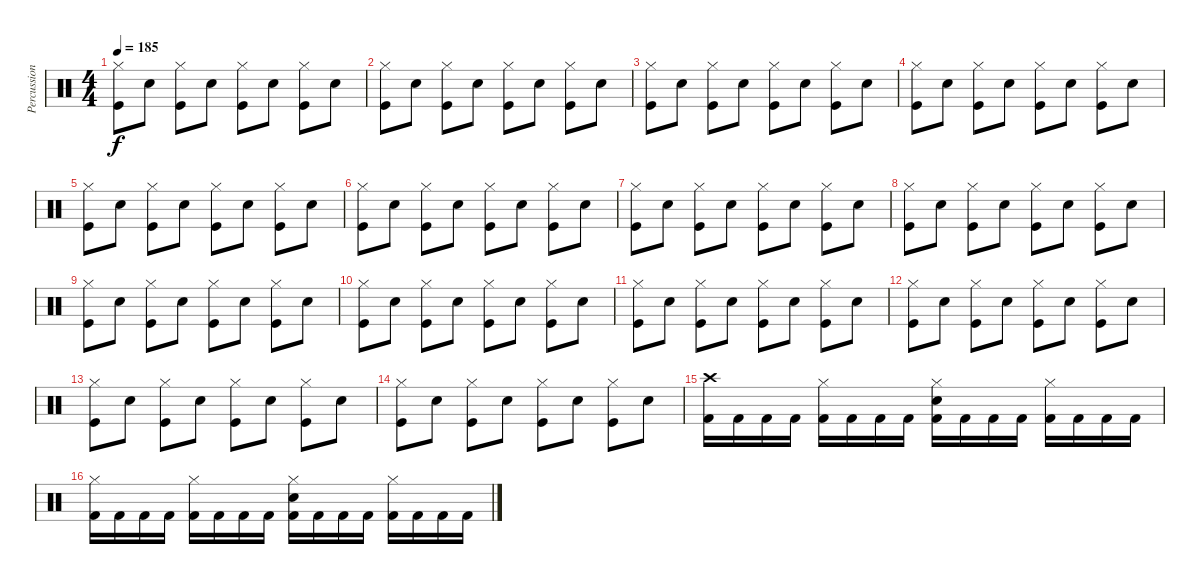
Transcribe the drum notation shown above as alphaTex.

\track ("Percussion" "Percussion") {instrument percussion}
\staff {score}
\articulation defaults
\ts (4 4)
\tempo 185
\clef neutral
\ks c
("Hi-Hat (closed)" "Kick (hit)").8{dy f} "Snare (hit) 2".8 ("Hi-Hat (closed)" "Kick (hit)").8 "Snare (hit) 2".8 ("Hi-Hat (closed)" "Kick (hit)").8 "Snare (hit) 2".8 ("Hi-Hat (closed)" "Kick (hit)").8 "Snare (hit) 2".8 |
("Hi-Hat (closed)" "Kick (hit)").8 "Snare (hit) 2".8 ("Hi-Hat (closed)" "Kick (hit)").8 "Snare (hit) 2".8 ("Hi-Hat (closed)" "Kick (hit)").8 "Snare (hit) 2".8 ("Hi-Hat (closed)" "Kick (hit)").8 "Snare (hit) 2".8 |
("Hi-Hat (closed)" "Kick (hit)").8 "Snare (hit) 2".8 ("Hi-Hat (closed)" "Kick (hit)").8 "Snare (hit) 2".8 ("Hi-Hat (closed)" "Kick (hit)").8 "Snare (hit) 2".8 ("Hi-Hat (closed)" "Kick (hit)").8 "Snare (hit) 2".8 |
("Hi-Hat (closed)" "Kick (hit)").8 "Snare (hit) 2".8 ("Hi-Hat (closed)" "Kick (hit)").8 "Snare (hit) 2".8 ("Hi-Hat (closed)" "Kick (hit)").8 "Snare (hit) 2".8 ("Hi-Hat (closed)" "Kick (hit)").8 "Snare (hit) 2".8 |
("Hi-Hat (closed)" "Kick (hit)").8 "Snare (hit) 2".8 ("Hi-Hat (closed)" "Kick (hit)").8 "Snare (hit) 2".8 ("Hi-Hat (closed)" "Kick (hit)").8 "Snare (hit) 2".8 ("Hi-Hat (closed)" "Kick (hit)").8 "Snare (hit) 2".8 |
("Hi-Hat (closed)" "Kick (hit)").8 "Snare (hit) 2".8 ("Hi-Hat (closed)" "Kick (hit)").8 "Snare (hit) 2".8 ("Hi-Hat (closed)" "Kick (hit)").8 "Snare (hit) 2".8 ("Hi-Hat (closed)" "Kick (hit)").8 "Snare (hit) 2".8 |
("Hi-Hat (closed)" "Kick (hit)").8 "Snare (hit) 2".8 ("Hi-Hat (closed)" "Kick (hit)").8 "Snare (hit) 2".8 ("Hi-Hat (closed)" "Kick (hit)").8 "Snare (hit) 2".8 ("Hi-Hat (closed)" "Kick (hit)").8 "Snare (hit) 2".8 |
("Hi-Hat (closed)" "Kick (hit)").8 "Snare (hit) 2".8 ("Hi-Hat (closed)" "Kick (hit)").8 "Snare (hit) 2".8 ("Hi-Hat (closed)" "Kick (hit)").8 "Snare (hit) 2".8 ("Hi-Hat (closed)" "Kick (hit)").8 "Snare (hit) 2".8 |
("Hi-Hat (closed)" "Kick (hit)").8 "Snare (hit) 2".8 ("Hi-Hat (closed)" "Kick (hit)").8 "Snare (hit) 2".8 ("Hi-Hat (closed)" "Kick (hit)").8 "Snare (hit) 2".8 ("Hi-Hat (closed)" "Kick (hit)").8 "Snare (hit) 2".8 |
("Hi-Hat (closed)" "Kick (hit)").8 "Snare (hit) 2".8 ("Hi-Hat (closed)" "Kick (hit)").8 "Snare (hit) 2".8 ("Hi-Hat (closed)" "Kick (hit)").8 "Snare (hit) 2".8 ("Hi-Hat (closed)" "Kick (hit)").8 "Snare (hit) 2".8 |
("Hi-Hat (closed)" "Kick (hit)").8 "Snare (hit) 2".8 ("Hi-Hat (closed)" "Kick (hit)").8 "Snare (hit) 2".8 ("Hi-Hat (closed)" "Kick (hit)").8 "Snare (hit) 2".8 ("Hi-Hat (closed)" "Kick (hit)").8 "Snare (hit) 2".8 |
("Hi-Hat (closed)" "Kick (hit)").8 "Snare (hit) 2".8 ("Hi-Hat (closed)" "Kick (hit)").8 "Snare (hit) 2".8 ("Hi-Hat (closed)" "Kick (hit)").8 "Snare (hit) 2".8 ("Hi-Hat (closed)" "Kick (hit)").8 "Snare (hit) 2".8 |
("Hi-Hat (closed)" "Kick (hit)").8 "Snare (hit) 2".8 ("Hi-Hat (closed)" "Kick (hit)").8 "Snare (hit) 2".8 ("Hi-Hat (closed)" "Kick (hit)").8 "Snare (hit) 2".8 ("Hi-Hat (closed)" "Kick (hit)").8 "Snare (hit) 2".8 |
("Hi-Hat (closed)" "Kick (hit)").8 "Snare (hit) 2".8 ("Hi-Hat (closed)" "Kick (hit)").8 "Snare (hit) 2".8 ("Hi-Hat (closed)" "Kick (hit)").8 "Snare (hit) 2".8 ("Hi-Hat (closed)" "Kick (hit)").8 "Snare (hit) 2".8 |
("Crash high (hit)" "Kick (hit) 2").16 "Kick (hit) 2".16 "Kick (hit) 2".16 "Kick (hit) 2".16 ("Hi-Hat (closed)" "Kick (hit) 2").16 "Kick (hit) 2".16 "Kick (hit) 2".16 "Kick (hit) 2".16 ("Hi-Hat (closed)" "Snare (hit) 2" "Kick (hit) 2").16 "Kick (hit) 2".16 "Kick (hit) 2".16 "Kick (hit) 2".16 ("Hi-Hat (closed)" "Kick (hit) 2").16 "Kick (hit) 2".16 "Kick (hit) 2".16 "Kick (hit) 2".16 |
("Hi-Hat (closed)" "Kick (hit) 2").16 "Kick (hit) 2".16 "Kick (hit) 2".16 "Kick (hit) 2".16 ("Hi-Hat (closed)" "Kick (hit) 2").16 "Kick (hit) 2".16 "Kick (hit) 2".16 "Kick (hit) 2".16 ("Hi-Hat (closed)" "Snare (hit) 2" "Kick (hit) 2").16 "Kick (hit) 2".16 "Kick (hit) 2".16 "Kick (hit) 2".16 ("Hi-Hat (closed)" "Kick (hit) 2").16 "Kick (hit) 2".16 "Kick (hit) 2".16 "Kick (hit) 2".16
